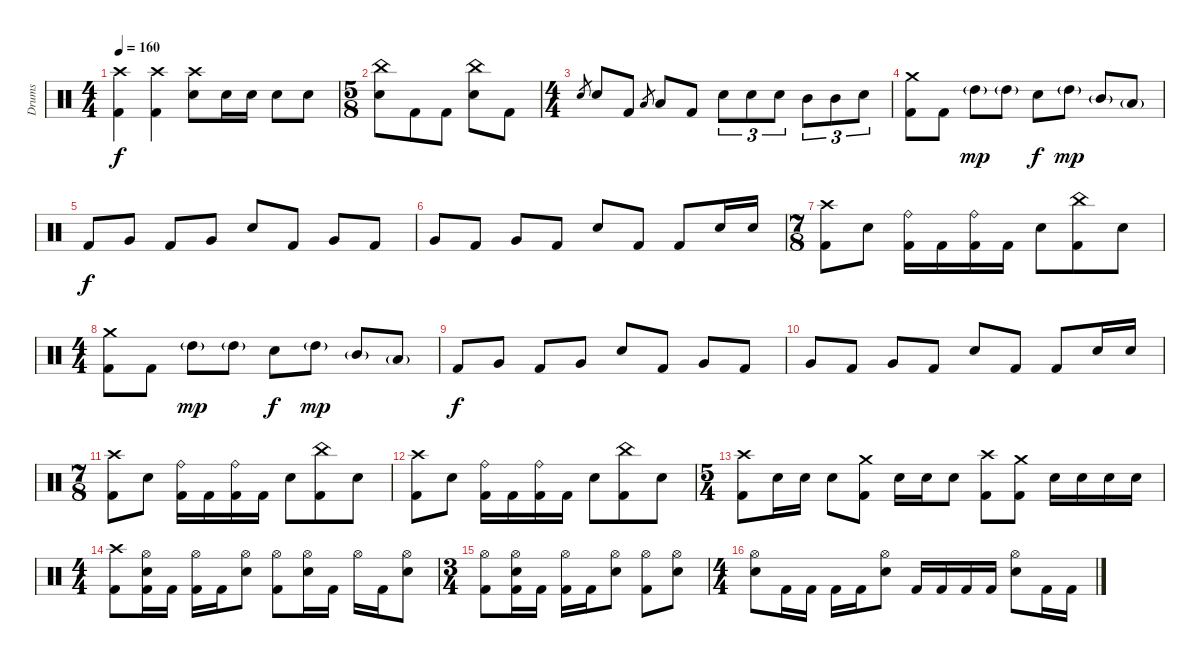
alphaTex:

\track ("Drums" "Drums") {instrument percussion}
\staff {score}
\articulation defaults
\ts (4 4)
\tempo 160
\clef neutral
\ks c
("Crash high (hit)" "Kick (hit) 2").4{dy f} ("Crash high (hit)" "Kick (hit) 2").4 ("Crash high (hit)" "Electric Snare (hit)").8 "Electric Snare (hit)".16 "Electric Snare (hit)".16 "Electric Snare (hit)".8 "Electric Snare (hit)".8 |
\ts (5 8)
("China (hit)" "Electric Snare (hit)").8 "Kick (hit) 2".8 "Kick (hit) 2".8 ("China (hit)" "Electric Snare (hit)").8 "Kick (hit) 2".8 |
\ts (4 4)
"Electric Snare (hit)".8{gr} "Electric Snare (hit)".8 "Kick (hit) 2".8 "Low Tom (hit)".8{gr} "Low Tom (hit)".8 "Kick (hit) 2".8 "Electric Snare (hit)".8{tu (3 2)} "Electric Snare (hit)".8{tu (3 2)} "Electric Snare (hit)".8{tu (3 2)} "Mid Tom (hit)".8{tu (3 2)} "Mid Tom (hit)".8{tu (3 2)} "Electric Snare (hit)".8{tu (3 2)} |
("Crash medium (hit)" "Kick (hit) 2").8 "Kick (hit) 2".8 "High Tom (hit)"{g}.8{dy mp} "High Tom (hit)"{g}.8 "Electric Snare (hit)".8{dy f} "High Tom (hit)"{g}.8{dy mp} "Mid Tom (hit)"{g}.8 "Low Tom (hit)"{g}.8 |
"Kick (hit) 2".8{dy f} "Very Low Tom (hit)".8 "Kick (hit) 2".8 "Very Low Tom (hit)".8 "Electric Snare (hit)".8 "Kick (hit) 2".8 "Very Low Tom (hit)".8 "Kick (hit) 2".8 |
"Very Low Tom (hit)".8 "Kick (hit) 2".8 "Very Low Tom (hit)".8 "Kick (hit) 2".8 "Electric Snare (hit)".8 "Kick (hit) 2".8 "Kick (hit) 2".8 "Electric Snare (hit)".16 "Electric Snare (hit)".16 |
\ts (7 8)
("Crash high (hit)" "Kick (hit) 2").8{beam merge} "Electric Snare (hit)".8{beam split} ("Ride (bell)" "Kick (hit) 2").16 "Kick (hit) 2".16{beam merge} ("Ride (bell)" "Kick (hit) 2").16 "Kick (hit) 2".16{beam split} "Electric Snare (hit)".8{beam merge} ("China (hit)" "Kick (hit) 2").8 "Electric Snare (hit)".8 |
\ts (4 4)
("Crash medium (hit)" "Kick (hit) 2").8 "Kick (hit) 2".8 "High Tom (hit)"{g}.8{dy mp} "High Tom (hit)"{g}.8 "Electric Snare (hit)".8{dy f} "High Tom (hit)"{g}.8{dy mp} "Mid Tom (hit)"{g}.8 "Low Tom (hit)"{g}.8 |
"Kick (hit) 2".8{dy f} "Very Low Tom (hit)".8 "Kick (hit) 2".8 "Very Low Tom (hit)".8 "Electric Snare (hit)".8 "Kick (hit) 2".8 "Very Low Tom (hit)".8 "Kick (hit) 2".8 |
"Very Low Tom (hit)".8 "Kick (hit) 2".8 "Very Low Tom (hit)".8 "Kick (hit) 2".8 "Electric Snare (hit)".8 "Kick (hit) 2".8 "Kick (hit) 2".8 "Electric Snare (hit)".16 "Electric Snare (hit)".16 |
\ts (7 8)
("Crash high (hit)" "Kick (hit) 2").8{beam merge} "Electric Snare (hit)".8{beam split} ("Ride (bell)" "Kick (hit) 2").16 "Kick (hit) 2".16{beam merge} ("Ride (bell)" "Kick (hit) 2").16 "Kick (hit) 2".16{beam split} "Electric Snare (hit)".8{beam merge} ("China (hit)" "Kick (hit) 2").8 "Electric Snare (hit)".8 |
("Crash high (hit)" "Kick (hit) 2").8{beam merge} "Electric Snare (hit)".8{beam split} ("Ride (bell)" "Kick (hit) 2").16 "Kick (hit) 2".16{beam merge} ("Ride (bell)" "Kick (hit) 2").16 "Kick (hit) 2".16{beam split} "Electric Snare (hit)".8{beam merge} ("China (hit)" "Kick (hit) 2").8 "Electric Snare (hit)".8 |
\ts (5 4)
("Crash high (hit)" "Kick (hit) 2").8 "Electric Snare (hit)".16 "Electric Snare (hit)".16 "Electric Snare (hit)".8 ("Crash medium (hit)" "Kick (hit) 2").8 "Electric Snare (hit)".16 "Electric Snare (hit)".16 "Electric Snare (hit)".8 ("Crash high (hit)" "Kick (hit) 2").8 ("Crash medium (hit)" "Kick (hit) 2").8 "Electric Snare (hit)".16 "Electric Snare (hit)".16 "Electric Snare (hit)".16 "Electric Snare (hit)".16 |
\ts (4 4)
("Crash high (hit)" "Kick (hit) 2").8 ("Hi-Hat (open)" "Electric Snare (hit)" "Kick (hit) 2").16 "Kick (hit) 2".16 ("Hi-Hat (open)" "Kick (hit) 2").16 "Kick (hit) 2".16 ("Hi-Hat (open)" "Electric Snare (hit)").8 ("Hi-Hat (open)" "Kick (hit) 2").8 ("Hi-Hat (open)" "Electric Snare (hit)").16 "Kick (hit) 2".16 "Hi-Hat (open)".16 "Kick (hit) 2".16 ("Hi-Hat (open)" "Electric Snare (hit)").8 |
\ts (3 4)
("Hi-Hat (open)" "Kick (hit) 2").8 ("Hi-Hat (open)" "Electric Snare (hit)" "Kick (hit) 2").16 "Kick (hit) 2".16 ("Hi-Hat (open)" "Kick (hit) 2").16 "Kick (hit) 2".16 ("Hi-Hat (open)" "Electric Snare (hit)").8 ("Hi-Hat (open)" "Kick (hit) 2").8 ("Hi-Hat (open)" "Electric Snare (hit)").8 |
\ts (4 4)
("Hi-Hat (open)" "Electric Snare (hit)").8 "Kick (hit) 2".16 "Kick (hit) 2".16 "Kick (hit) 2".16 "Kick (hit) 2".16 ("Hi-Hat (open)" "Electric Snare (hit)").8 "Kick (hit) 2".16 "Kick (hit) 2".16 "Kick (hit) 2".16 "Kick (hit) 2".16 ("Hi-Hat (open)" "Electric Snare (hit)").8 "Kick (hit) 2".16 "Kick (hit) 2".16
